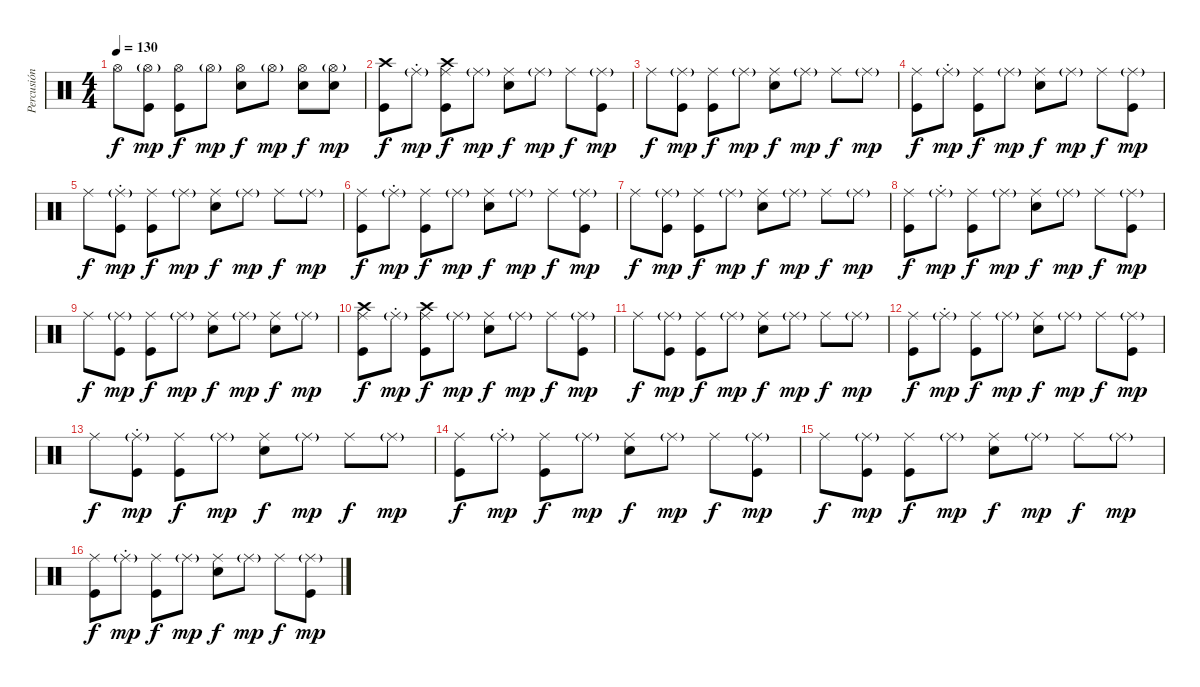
\track ("Percusión" "Percusión") {instrument percussion}
\staff {score}
\articulation defaults
\ts (4 4)
\tempo 130
\clef neutral
\ks c "Hi-Hat (open)".8{dy f}
("Hi-Hat (open)"{g} "Kick (hit)").8{dy mp} ("Hi-Hat (open)" "Kick (hit)").8{dy f} "Hi-Hat (open)"{g}.8{dy mp} ("Hi-Hat (open)" "Electric Snare (hit)").8{dy f} "Hi-Hat (open)"{g}.8{dy mp} ("Hi-Hat (open)" "Electric Snare (hit)").8{dy f} ("Hi-Hat (open)"{g} "Electric Snare (hit)").8{dy mp} |
("Crash high (hit)" "Kick (hit)").8{dy f} "Ride (middle)"{g st}.8{dy mp} ("Crash high (hit)" "Ride (middle)" "Kick (hit)").8{dy f} "Ride (middle)"{g}.8{dy mp} ("Ride (middle)" "Electric Snare (hit)").8{dy f} "Ride (middle)"{g}.8{dy mp} "Ride (middle)".8{dy f} ("Ride (middle)"{g} "Kick (hit)").8{dy mp} |
"Ride (middle)".8{dy f} ("Ride (middle)"{g} "Kick (hit)").8{dy mp} ("Ride (middle)" "Kick (hit)").8{dy f} "Ride (middle)"{g}.8{dy mp} ("Ride (middle)" "Electric Snare (hit)").8{dy f} "Ride (middle)"{g}.8{dy mp} "Ride (middle)".8{dy f} "Ride (middle)"{g}.8{dy mp} |
("Ride (middle)" "Kick (hit)").8{dy f} "Ride (middle)"{g st}.8{dy mp} ("Ride (middle)" "Kick (hit)").8{dy f} "Ride (middle)"{g}.8{dy mp} ("Ride (middle)" "Electric Snare (hit)").8{dy f} "Ride (middle)"{g}.8{dy mp} "Ride (middle)".8{dy f} ("Ride (middle)"{g} "Kick (hit)").8{dy mp} |
"Ride (middle)".8{dy f} ("Ride (middle)"{g st} "Kick (hit)").8{dy mp} ("Ride (middle)" "Kick (hit)").8{dy f} "Ride (middle)"{g}.8{dy mp} ("Ride (middle)" "Electric Snare (hit)").8{dy f} "Ride (middle)"{g}.8{dy mp} "Ride (middle)".8{dy f} "Ride (middle)"{g}.8{dy mp} |
("Ride (middle)" "Kick (hit)").8{dy f} "Ride (middle)"{g st}.8{dy mp} ("Ride (middle)" "Kick (hit)").8{dy f} "Ride (middle)"{g}.8{dy mp} ("Ride (middle)" "Electric Snare (hit)").8{dy f} "Ride (middle)"{g}.8{dy mp} "Ride (middle)".8{dy f} ("Ride (middle)"{g} "Kick (hit)").8{dy mp} |
"Ride (middle)".8{dy f} ("Ride (middle)"{g} "Kick (hit)").8{dy mp} ("Ride (middle)" "Kick (hit)").8{dy f} "Ride (middle)"{g}.8{dy mp} ("Ride (middle)" "Electric Snare (hit)").8{dy f} "Ride (middle)"{g}.8{dy mp} "Ride (middle)".8{dy f} "Ride (middle)"{g}.8{dy mp} |
("Ride (middle)" "Kick (hit)").8{dy f} "Ride (middle)"{g st}.8{dy mp} ("Ride (middle)" "Kick (hit)").8{dy f} "Ride (middle)"{g}.8{dy mp} ("Ride (middle)" "Electric Snare (hit)").8{dy f} "Ride (middle)"{g}.8{dy mp} "Ride (middle)".8{dy f} ("Ride (middle)"{g} "Kick (hit)").8{dy mp} |
"Ride (middle)".8{dy f} ("Ride (middle)"{g} "Kick (hit)").8{dy mp} ("Ride (middle)" "Kick (hit)").8{dy f} "Ride (middle)"{g}.8{dy mp} ("Ride (middle)" "Electric Snare (hit)").8{dy f} "Ride (middle)"{g}.8{dy mp} ("Ride (middle)" "Electric Snare (hit)").8{dy f} "Ride (middle)"{g}.8{dy mp} |
("Crash high (hit)" "Ride (middle)" "Kick (hit)").8{dy f} "Ride (middle)"{g st}.8{dy mp} ("Crash high (hit)" "Ride (middle)" "Kick (hit)").8{dy f} "Ride (middle)"{g}.8{dy mp} ("Ride (middle)" "Electric Snare (hit)").8{dy f} "Ride (middle)"{g}.8{dy mp} "Ride (middle)".8{dy f} ("Ride (middle)"{g} "Kick (hit)").8{dy mp} |
"Ride (middle)".8{dy f} ("Ride (middle)"{g} "Kick (hit)").8{dy mp} ("Ride (middle)" "Kick (hit)").8{dy f} "Ride (middle)"{g}.8{dy mp} ("Ride (middle)" "Electric Snare (hit)").8{dy f} "Ride (middle)"{g}.8{dy mp} "Ride (middle)".8{dy f} "Ride (middle)"{g}.8{dy mp} |
("Ride (middle)" "Kick (hit)").8{dy f} "Ride (middle)"{g st}.8{dy mp} ("Ride (middle)" "Kick (hit)").8{dy f} "Ride (middle)"{g}.8{dy mp} ("Ride (middle)" "Electric Snare (hit)").8{dy f} "Ride (middle)"{g}.8{dy mp} "Ride (middle)".8{dy f} ("Ride (middle)"{g} "Kick (hit)").8{dy mp} |
"Ride (middle)".8{dy f} ("Ride (middle)"{g st} "Kick (hit)").8{dy mp} ("Ride (middle)" "Kick (hit)").8{dy f} "Ride (middle)"{g}.8{dy mp} ("Ride (middle)" "Electric Snare (hit)").8{dy f} "Ride (middle)"{g}.8{dy mp} "Ride (middle)".8{dy f} "Ride (middle)"{g}.8{dy mp} |
("Ride (middle)" "Kick (hit)").8{dy f} "Ride (middle)"{g st}.8{dy mp} ("Ride (middle)" "Kick (hit)").8{dy f} "Ride (middle)"{g}.8{dy mp} ("Ride (middle)" "Electric Snare (hit)").8{dy f} "Ride (middle)"{g}.8{dy mp} "Ride (middle)".8{dy f} ("Ride (middle)"{g} "Kick (hit)").8{dy mp} |
"Ride (middle)".8{dy f} ("Ride (middle)"{g} "Kick (hit)").8{dy mp} ("Ride (middle)" "Kick (hit)").8{dy f} "Ride (middle)"{g}.8{dy mp} ("Ride (middle)" "Electric Snare (hit)").8{dy f} "Ride (middle)"{g}.8{dy mp} "Ride (middle)".8{dy f} "Ride (middle)"{g}.8{dy mp} |
("Ride (middle)" "Kick (hit)").8{dy f} "Ride (middle)"{g st}.8{dy mp} ("Ride (middle)" "Kick (hit)").8{dy f} "Ride (middle)"{g}.8{dy mp} ("Ride (middle)" "Electric Snare (hit)").8{dy f} "Ride (middle)"{g}.8{dy mp} "Ride (middle)".8{dy f} ("Ride (middle)"{g} "Kick (hit)").8{dy mp}
